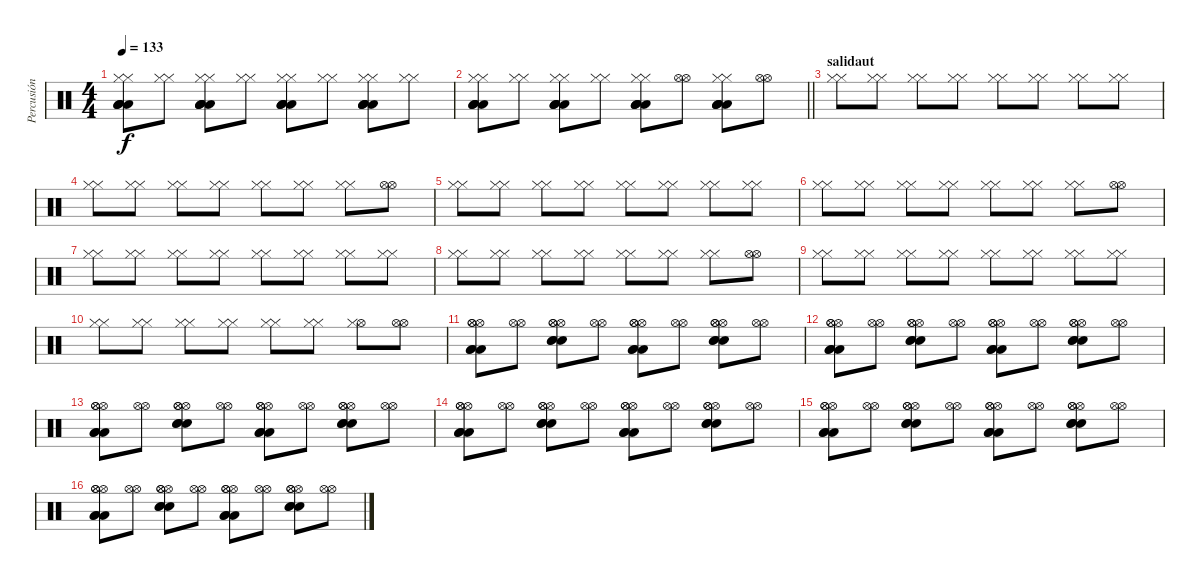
\track ("Percusión" "Percusión") {instrument percussion}
\staff {score}
\articulation defaults
\ts (4 4)
\tempo 133
\clef neutral
\ks c
("Hi-Hat (closed)" "Hi-Hat (closed)" "Low Tom (hit)" "Low Tom (hit)" "Low Tom (hit)" "Low Tom (hit)").8{dy f} ("Hi-Hat (closed)" "Hi-Hat (closed)").8 ("Hi-Hat (closed)" "Hi-Hat (closed)" "Low Tom (hit)" "Low Tom (hit)" "Low Tom (hit)" "Low Tom (hit)").8 ("Hi-Hat (closed)" "Hi-Hat (closed)").8 ("Hi-Hat (closed)" "Hi-Hat (closed)" "Low Tom (hit)" "Low Tom (hit)" "Low Tom (hit)" "Low Tom (hit)").8 ("Hi-Hat (closed)" "Hi-Hat (closed)").8 ("Hi-Hat (closed)" "Hi-Hat (closed)" "Low Tom (hit)" "Low Tom (hit)" "Low Tom (hit)" "Low Tom (hit)").8 ("Hi-Hat (closed)" "Hi-Hat (closed)").8 |
\barLineRight lightlight
("Hi-Hat (closed)" "Hi-Hat (closed)" "Low Tom (hit)" "Low Tom (hit)" "Low Tom (hit)" "Low Tom (hit)").8 ("Hi-Hat (closed)" "Hi-Hat (closed)").8 ("Hi-Hat (closed)" "Hi-Hat (closed)" "Low Tom (hit)" "Low Tom (hit)" "Low Tom (hit)" "Low Tom (hit)").8 ("Hi-Hat (closed)" "Hi-Hat (closed)").8 ("Hi-Hat (closed)" "Hi-Hat (closed)" "Low Tom (hit)" "Low Tom (hit)" "Low Tom (hit)" "Low Tom (hit)").8 ("Hi-Hat (open)" "Hi-Hat (open)").8 ("Hi-Hat (closed)" "Hi-Hat (closed)" "Low Tom (hit)" "Low Tom (hit)" "Low Tom (hit)" "Low Tom (hit)").8 ("Hi-Hat (open)" "Hi-Hat (open)").8 |
\section ("" "salidaut")
("Hi-Hat (closed)" "Hi-Hat (closed)").8 ("Hi-Hat (closed)" "Hi-Hat (closed)").8 ("Hi-Hat (closed)" "Hi-Hat (closed)").8 ("Hi-Hat (closed)" "Hi-Hat (closed)").8 ("Hi-Hat (closed)" "Hi-Hat (closed)").8 ("Hi-Hat (closed)" "Hi-Hat (closed)").8 ("Hi-Hat (closed)" "Hi-Hat (closed)").8 ("Hi-Hat (closed)" "Hi-Hat (closed)").8 |
("Hi-Hat (closed)" "Hi-Hat (closed)").8 ("Hi-Hat (closed)" "Hi-Hat (closed)").8 ("Hi-Hat (closed)" "Hi-Hat (closed)").8 ("Hi-Hat (closed)" "Hi-Hat (closed)").8 ("Hi-Hat (closed)" "Hi-Hat (closed)").8 ("Hi-Hat (closed)" "Hi-Hat (closed)").8 ("Hi-Hat (closed)" "Hi-Hat (closed)").8 ("Hi-Hat (open)" "Hi-Hat (open)").8 |
("Hi-Hat (closed)" "Hi-Hat (closed)").8 ("Hi-Hat (closed)" "Hi-Hat (closed)").8 ("Hi-Hat (closed)" "Hi-Hat (closed)").8 ("Hi-Hat (closed)" "Hi-Hat (closed)").8 ("Hi-Hat (closed)" "Hi-Hat (closed)").8 ("Hi-Hat (closed)" "Hi-Hat (closed)").8 ("Hi-Hat (closed)" "Hi-Hat (closed)").8 ("Hi-Hat (closed)" "Hi-Hat (closed)").8 |
("Hi-Hat (closed)" "Hi-Hat (closed)").8 ("Hi-Hat (closed)" "Hi-Hat (closed)").8 ("Hi-Hat (closed)" "Hi-Hat (closed)").8 ("Hi-Hat (closed)" "Hi-Hat (closed)").8 ("Hi-Hat (closed)" "Hi-Hat (closed)").8 ("Hi-Hat (closed)" "Hi-Hat (closed)").8 ("Hi-Hat (closed)" "Hi-Hat (closed)").8 ("Hi-Hat (open)" "Hi-Hat (open)").8 |
("Hi-Hat (closed)" "Hi-Hat (closed)").8 ("Hi-Hat (closed)" "Hi-Hat (closed)").8 ("Hi-Hat (closed)" "Hi-Hat (closed)").8 ("Hi-Hat (closed)" "Hi-Hat (closed)").8 ("Hi-Hat (closed)" "Hi-Hat (closed)").8 ("Hi-Hat (closed)" "Hi-Hat (closed)").8 ("Hi-Hat (closed)" "Hi-Hat (closed)").8 ("Hi-Hat (closed)" "Hi-Hat (closed)").8 |
("Hi-Hat (closed)" "Hi-Hat (closed)").8 ("Hi-Hat (closed)" "Hi-Hat (closed)").8 ("Hi-Hat (closed)" "Hi-Hat (closed)").8 ("Hi-Hat (closed)" "Hi-Hat (closed)").8 ("Hi-Hat (closed)" "Hi-Hat (closed)").8 ("Hi-Hat (closed)" "Hi-Hat (closed)").8 ("Hi-Hat (closed)" "Hi-Hat (closed)").8 ("Hi-Hat (open)" "Hi-Hat (open)").8 |
("Hi-Hat (closed)" "Hi-Hat (closed)").8 ("Hi-Hat (closed)" "Hi-Hat (closed)").8 ("Hi-Hat (closed)" "Hi-Hat (closed)").8 ("Hi-Hat (closed)" "Hi-Hat (closed)").8 ("Hi-Hat (closed)" "Hi-Hat (closed)").8 ("Hi-Hat (closed)" "Hi-Hat (closed)").8 ("Hi-Hat (closed)" "Hi-Hat (closed)").8 ("Hi-Hat (closed)" "Hi-Hat (closed)").8 |
("Hi-Hat (closed)" "Hi-Hat (closed)").8 ("Hi-Hat (closed)" "Hi-Hat (closed)").8 ("Hi-Hat (closed)" "Hi-Hat (closed)").8 ("Hi-Hat (closed)" "Hi-Hat (closed)").8 ("Hi-Hat (closed)" "Hi-Hat (closed)").8 ("Hi-Hat (closed)" "Hi-Hat (closed)").8 ("Hi-Hat (open)" "Hi-Hat (closed)").8 ("Hi-Hat (open)" "Hi-Hat (open)").8 |
("Hi-Hat (open)" "Hi-Hat (open)" "Hi-Hat (open)" "Low Tom (hit)" "Low Tom (hit)" "Low Tom (hit)").8 ("Hi-Hat (open)" "Hi-Hat (open)").8 ("Hi-Hat (open)" "Hi-Hat (open)" "Hi-Hat (open)" "Snare (hit) 2" "Snare (hit) 2" "Snare (hit) 2").8 ("Hi-Hat (open)" "Hi-Hat (open)").8 ("Hi-Hat (open)" "Hi-Hat (open)" "Hi-Hat (open)" "Low Tom (hit)" "Low Tom (hit)" "Low Tom (hit)").8 ("Hi-Hat (open)" "Hi-Hat (open)").8 ("Hi-Hat (open)" "Hi-Hat (open)" "Hi-Hat (open)" "Snare (hit) 2" "Snare (hit) 2" "Snare (hit) 2").8 ("Hi-Hat (open)" "Hi-Hat (open)").8 |
("Hi-Hat (open)" "Hi-Hat (open)" "Hi-Hat (open)" "Low Tom (hit)" "Low Tom (hit)" "Low Tom (hit)").8 ("Hi-Hat (open)" "Hi-Hat (open)").8 ("Hi-Hat (open)" "Hi-Hat (open)" "Hi-Hat (open)" "Snare (hit) 2" "Snare (hit) 2" "Snare (hit) 2").8 ("Hi-Hat (open)" "Hi-Hat (open)").8 ("Hi-Hat (open)" "Hi-Hat (open)" "Hi-Hat (open)" "Low Tom (hit)" "Low Tom (hit)" "Low Tom (hit)").8 ("Hi-Hat (open)" "Hi-Hat (open)").8 ("Hi-Hat (open)" "Hi-Hat (open)" "Hi-Hat (open)" "Snare (hit) 2" "Snare (hit) 2" "Snare (hit) 2").8 ("Hi-Hat (open)" "Hi-Hat (open)").8 |
("Hi-Hat (open)" "Hi-Hat (open)" "Hi-Hat (open)" "Low Tom (hit)" "Low Tom (hit)" "Low Tom (hit)").8 ("Hi-Hat (open)" "Hi-Hat (open)").8 ("Hi-Hat (open)" "Hi-Hat (open)" "Hi-Hat (open)" "Snare (hit) 2" "Snare (hit) 2" "Snare (hit) 2").8 ("Hi-Hat (open)" "Hi-Hat (open)").8 ("Hi-Hat (open)" "Hi-Hat (open)" "Hi-Hat (open)" "Low Tom (hit)" "Low Tom (hit)" "Low Tom (hit)").8 ("Hi-Hat (open)" "Hi-Hat (open)").8 ("Hi-Hat (open)" "Hi-Hat (open)" "Hi-Hat (open)" "Snare (hit) 2" "Snare (hit) 2" "Snare (hit) 2").8 ("Hi-Hat (open)" "Hi-Hat (open)").8 |
("Hi-Hat (open)" "Hi-Hat (open)" "Hi-Hat (open)" "Low Tom (hit)" "Low Tom (hit)" "Low Tom (hit)").8 ("Hi-Hat (open)" "Hi-Hat (open)").8 ("Hi-Hat (open)" "Hi-Hat (open)" "Hi-Hat (open)" "Snare (hit) 2" "Snare (hit) 2" "Snare (hit) 2").8 ("Hi-Hat (open)" "Hi-Hat (open)").8 ("Hi-Hat (open)" "Hi-Hat (open)" "Hi-Hat (open)" "Low Tom (hit)" "Low Tom (hit)" "Low Tom (hit)").8 ("Hi-Hat (open)" "Hi-Hat (open)").8 ("Hi-Hat (open)" "Hi-Hat (open)" "Hi-Hat (open)" "Snare (hit) 2" "Snare (hit) 2" "Snare (hit) 2").8 ("Hi-Hat (open)" "Hi-Hat (open)").8 |
("Hi-Hat (open)" "Hi-Hat (open)" "Hi-Hat (open)" "Low Tom (hit)" "Low Tom (hit)" "Low Tom (hit)").8 ("Hi-Hat (open)" "Hi-Hat (open)").8 ("Hi-Hat (open)" "Hi-Hat (open)" "Hi-Hat (open)" "Snare (hit) 2" "Snare (hit) 2" "Snare (hit) 2").8 ("Hi-Hat (open)" "Hi-Hat (open)").8 ("Hi-Hat (open)" "Hi-Hat (open)" "Hi-Hat (open)" "Low Tom (hit)" "Low Tom (hit)" "Low Tom (hit)").8 ("Hi-Hat (open)" "Hi-Hat (open)").8 ("Hi-Hat (open)" "Hi-Hat (open)" "Hi-Hat (open)" "Snare (hit) 2" "Snare (hit) 2" "Snare (hit) 2").8 ("Hi-Hat (open)" "Hi-Hat (open)").8 |
("Hi-Hat (open)" "Hi-Hat (open)" "Hi-Hat (open)" "Low Tom (hit)" "Low Tom (hit)" "Low Tom (hit)").8 ("Hi-Hat (open)" "Hi-Hat (open)").8 ("Hi-Hat (open)" "Hi-Hat (open)" "Hi-Hat (open)" "Snare (hit) 2" "Snare (hit) 2" "Snare (hit) 2").8 ("Hi-Hat (open)" "Hi-Hat (open)").8 ("Hi-Hat (open)" "Hi-Hat (open)" "Hi-Hat (open)" "Low Tom (hit)" "Low Tom (hit)" "Low Tom (hit)").8 ("Hi-Hat (open)" "Hi-Hat (open)").8 ("Hi-Hat (open)" "Hi-Hat (open)" "Hi-Hat (open)" "Snare (hit) 2" "Snare (hit) 2" "Snare (hit) 2").8 ("Hi-Hat (open)" "Hi-Hat (open)").8
